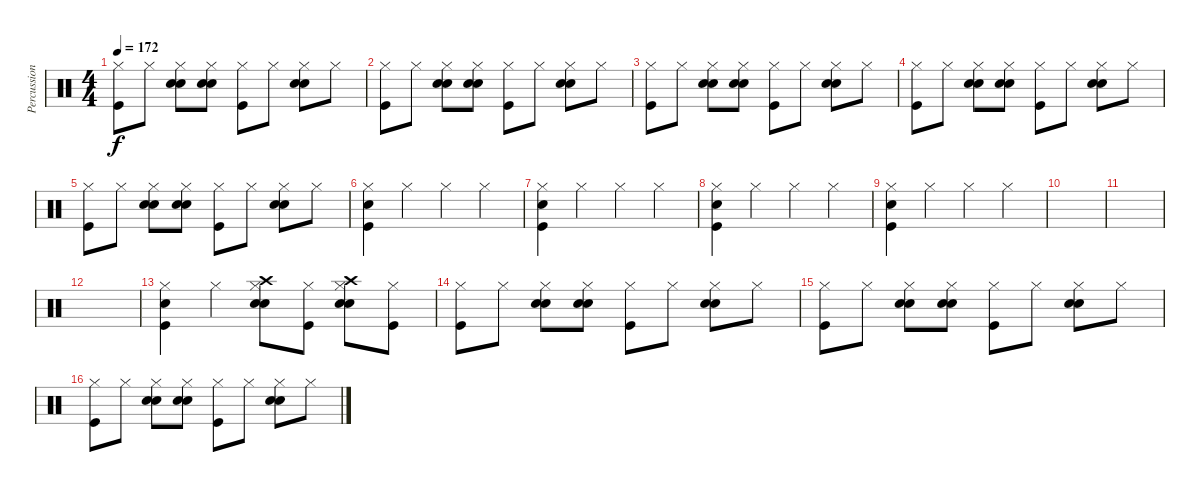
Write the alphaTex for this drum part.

\track ("Percussions" "Percussion") {instrument percussion}
\staff {score}
\articulation defaults
\ts (4 4)
\tempo 172
\clef neutral
\ks c
("Hi-Hat (closed)" "Kick (hit)").8{dy f} "Hi-Hat (closed)".8 ("Electric Snare (hit)" "Hi-Hat (closed)" "Snare (hit) 2").8 ("Electric Snare (hit)" "Hi-Hat (closed)" "Snare (hit) 2").8 ("Hi-Hat (closed)" "Kick (hit)").8 "Hi-Hat (closed)".8 ("Electric Snare (hit)" "Hi-Hat (closed)" "Snare (hit) 2").8 "Hi-Hat (closed)".8 |
("Hi-Hat (closed)" "Kick (hit)").8 "Hi-Hat (closed)".8 ("Electric Snare (hit)" "Hi-Hat (closed)" "Snare (hit) 2").8 ("Electric Snare (hit)" "Hi-Hat (closed)" "Snare (hit) 2").8 ("Hi-Hat (closed)" "Kick (hit)").8 "Hi-Hat (closed)".8 ("Electric Snare (hit)" "Hi-Hat (closed)" "Snare (hit) 2").8 "Hi-Hat (closed)".8 |
("Hi-Hat (closed)" "Kick (hit)").8 "Hi-Hat (closed)".8 ("Electric Snare (hit)" "Hi-Hat (closed)" "Snare (hit) 2").8 ("Electric Snare (hit)" "Hi-Hat (closed)" "Snare (hit) 2").8 ("Hi-Hat (closed)" "Kick (hit)").8 "Hi-Hat (closed)".8 ("Electric Snare (hit)" "Hi-Hat (closed)" "Snare (hit) 2").8 "Hi-Hat (closed)".8 |
("Hi-Hat (closed)" "Kick (hit)").8 "Hi-Hat (closed)".8 ("Electric Snare (hit)" "Hi-Hat (closed)" "Snare (hit) 2").8 ("Electric Snare (hit)" "Hi-Hat (closed)" "Snare (hit) 2").8 ("Hi-Hat (closed)" "Kick (hit)").8 "Hi-Hat (closed)".8 ("Electric Snare (hit)" "Hi-Hat (closed)" "Snare (hit) 2").8 "Hi-Hat (closed)".8 |
("Hi-Hat (closed)" "Kick (hit)").8 "Hi-Hat (closed)".8 ("Electric Snare (hit)" "Hi-Hat (closed)" "Snare (hit) 2").8 ("Electric Snare (hit)" "Hi-Hat (closed)" "Snare (hit) 2").8 ("Hi-Hat (closed)" "Kick (hit)").8 "Hi-Hat (closed)".8 ("Electric Snare (hit)" "Hi-Hat (closed)" "Snare (hit) 2").8 "Hi-Hat (closed)".8 |
("Hi-Hat (closed)" "Snare (hit) 2" "Kick (hit)").4 "Hi-Hat (closed)".4 "Hi-Hat (closed)".4 "Hi-Hat (closed)".4 |
("Hi-Hat (closed)" "Snare (hit) 2" "Kick (hit)").4 "Hi-Hat (closed)".4 "Hi-Hat (closed)".4 "Hi-Hat (closed)".4 |
("Hi-Hat (closed)" "Snare (hit) 2" "Kick (hit)").4 "Hi-Hat (closed)".4 "Hi-Hat (closed)".4 "Hi-Hat (closed)".4 |
("Hi-Hat (closed)" "Snare (hit) 2" "Kick (hit)").4 "Hi-Hat (closed)".4 "Hi-Hat (closed)".4 "Hi-Hat (closed)".4 |
|
|
|
("Hi-Hat (closed)" "Snare (hit) 2" "Kick (hit)").4 "Hi-Hat (closed)".4 ("Crash high (hit)" "Snare (hit) 2" "Hi-Hat (closed)" "Electric Snare (hit)").8 ("Hi-Hat (closed)" "Kick (hit)").8 ("Crash high (hit)" "Snare (hit) 2" "Hi-Hat (closed)" "Electric Snare (hit)").8 ("Hi-Hat (closed)" "Kick (hit)").8 |
("Hi-Hat (closed)" "Kick (hit)").8 "Hi-Hat (closed)".8 ("Electric Snare (hit)" "Hi-Hat (closed)" "Snare (hit) 2").8 ("Electric Snare (hit)" "Hi-Hat (closed)" "Snare (hit) 2").8 ("Hi-Hat (closed)" "Kick (hit)").8 "Hi-Hat (closed)".8 ("Electric Snare (hit)" "Hi-Hat (closed)" "Snare (hit) 2").8 "Hi-Hat (closed)".8 |
("Hi-Hat (closed)" "Kick (hit)").8 "Hi-Hat (closed)".8 ("Electric Snare (hit)" "Hi-Hat (closed)" "Snare (hit) 2").8 ("Electric Snare (hit)" "Hi-Hat (closed)" "Snare (hit) 2").8 ("Hi-Hat (closed)" "Kick (hit)").8 "Hi-Hat (closed)".8 ("Electric Snare (hit)" "Hi-Hat (closed)" "Snare (hit) 2").8 "Hi-Hat (closed)".8 |
("Hi-Hat (closed)" "Kick (hit)").8 "Hi-Hat (closed)".8 ("Electric Snare (hit)" "Hi-Hat (closed)" "Snare (hit) 2").8 ("Electric Snare (hit)" "Hi-Hat (closed)" "Snare (hit) 2").8 ("Hi-Hat (closed)" "Kick (hit)").8 "Hi-Hat (closed)".8 ("Electric Snare (hit)" "Hi-Hat (closed)" "Snare (hit) 2").8 "Hi-Hat (closed)".8
